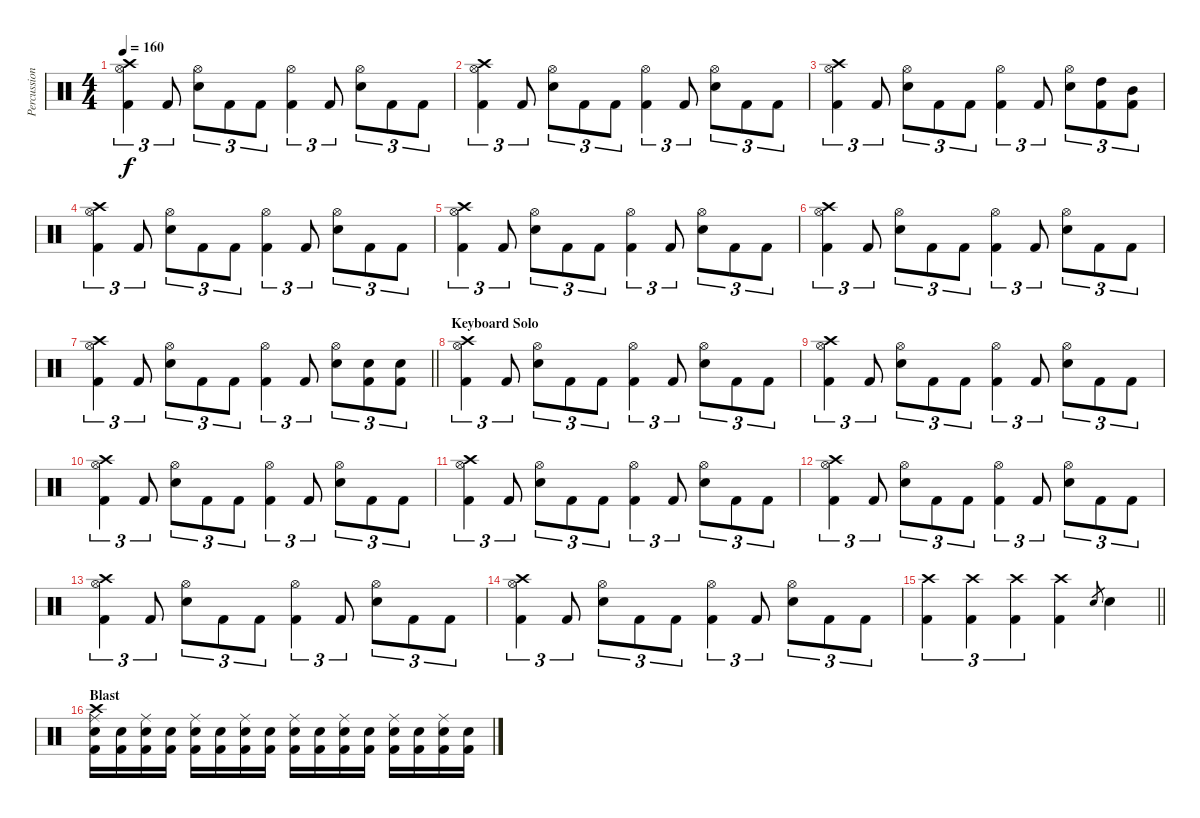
\track ("Percussion" "Percussion") {instrument percussion}
\staff {score}
\articulation defaults
\ts (4 4)
\tempo 160
\clef neutral
\ks c
("Crash high (hit)" "Hi-Hat (open)" "Kick (hit) 2").4{tu (3 2) dy f} "Kick (hit) 2".8{tu (3 2)} ("Hi-Hat (open)" "Snare (hit) 2").8{tu (3 2)} "Kick (hit) 2".8{tu (3 2)} "Kick (hit) 2".8{tu (3 2)} ("Hi-Hat (open)" "Kick (hit) 2").4{tu (3 2)} "Kick (hit) 2".8{tu (3 2)} ("Hi-Hat (open)" "Snare (hit) 2").8{tu (3 2)} "Kick (hit) 2".8{tu (3 2)} "Kick (hit) 2".8{tu (3 2)} |
("Crash high (hit)" "Hi-Hat (open)" "Kick (hit) 2").4{tu (3 2)} "Kick (hit) 2".8{tu (3 2)} ("Hi-Hat (open)" "Snare (hit) 2").8{tu (3 2)} "Kick (hit) 2".8{tu (3 2)} "Kick (hit) 2".8{tu (3 2)} ("Hi-Hat (open)" "Kick (hit) 2").4{tu (3 2)} "Kick (hit) 2".8{tu (3 2)} ("Hi-Hat (open)" "Snare (hit) 2").8{tu (3 2)} "Kick (hit) 2".8{tu (3 2)} "Kick (hit) 2".8{tu (3 2)} |
("Crash high (hit)" "Hi-Hat (open)" "Kick (hit) 2").4{tu (3 2)} "Kick (hit) 2".8{tu (3 2)} ("Hi-Hat (open)" "Snare (hit) 2").8{tu (3 2)} "Kick (hit) 2".8{tu (3 2)} "Kick (hit) 2".8{tu (3 2)} ("Hi-Hat (open)" "Kick (hit) 2").4{tu (3 2)} "Kick (hit) 2".8{tu (3 2)} ("Hi-Hat (open)" "Snare (hit) 2").8{tu (3 2)} ("High Tom (hit)" "Kick (hit) 2").8{tu (3 2)} ("Mid Tom (hit)" "Kick (hit) 2").8{tu (3 2)} |
("Crash high (hit)" "Hi-Hat (open)" "Kick (hit) 2").4{tu (3 2)} "Kick (hit) 2".8{tu (3 2)} ("Hi-Hat (open)" "Snare (hit) 2").8{tu (3 2)} "Kick (hit) 2".8{tu (3 2)} "Kick (hit) 2".8{tu (3 2)} ("Hi-Hat (open)" "Kick (hit) 2").4{tu (3 2)} "Kick (hit) 2".8{tu (3 2)} ("Hi-Hat (open)" "Snare (hit) 2").8{tu (3 2)} "Kick (hit) 2".8{tu (3 2)} "Kick (hit) 2".8{tu (3 2)} |
("Crash high (hit)" "Hi-Hat (open)" "Kick (hit) 2").4{tu (3 2)} "Kick (hit) 2".8{tu (3 2)} ("Hi-Hat (open)" "Snare (hit) 2").8{tu (3 2)} "Kick (hit) 2".8{tu (3 2)} "Kick (hit) 2".8{tu (3 2)} ("Hi-Hat (open)" "Kick (hit) 2").4{tu (3 2)} "Kick (hit) 2".8{tu (3 2)} ("Hi-Hat (open)" "Snare (hit) 2").8{tu (3 2)} "Kick (hit) 2".8{tu (3 2)} "Kick (hit) 2".8{tu (3 2)} |
("Crash high (hit)" "Hi-Hat (open)" "Kick (hit) 2").4{tu (3 2)} "Kick (hit) 2".8{tu (3 2)} ("Hi-Hat (open)" "Snare (hit) 2").8{tu (3 2)} "Kick (hit) 2".8{tu (3 2)} "Kick (hit) 2".8{tu (3 2)} ("Hi-Hat (open)" "Kick (hit) 2").4{tu (3 2)} "Kick (hit) 2".8{tu (3 2)} ("Hi-Hat (open)" "Snare (hit) 2").8{tu (3 2)} "Kick (hit) 2".8{tu (3 2)} "Kick (hit) 2".8{tu (3 2)} |
\barLineRight lightlight
("Crash high (hit)" "Hi-Hat (open)" "Kick (hit) 2").4{tu (3 2)} "Kick (hit) 2".8{tu (3 2)} ("Hi-Hat (open)" "Snare (hit) 2").8{tu (3 2)} "Kick (hit) 2".8{tu (3 2)} "Kick (hit) 2".8{tu (3 2)} ("Hi-Hat (open)" "Kick (hit) 2").4{tu (3 2)} "Kick (hit) 2".8{tu (3 2)} ("Hi-Hat (open)" "Snare (hit) 2").8{tu (3 2)} ("Snare (hit) 2" "Kick (hit) 2").8{tu (3 2)} ("Snare (hit) 2" "Kick (hit) 2").8{tu (3 2)} |
\section ("" "Keyboard Solo")
("Crash high (hit)" "Hi-Hat (open)" "Kick (hit) 2").4{tu (3 2)} "Kick (hit) 2".8{tu (3 2)} ("Hi-Hat (open)" "Snare (hit) 2").8{tu (3 2)} "Kick (hit) 2".8{tu (3 2)} "Kick (hit) 2".8{tu (3 2)} ("Hi-Hat (open)" "Kick (hit) 2").4{tu (3 2)} "Kick (hit) 2".8{tu (3 2)} ("Hi-Hat (open)" "Snare (hit) 2").8{tu (3 2)} "Kick (hit) 2".8{tu (3 2)} "Kick (hit) 2".8{tu (3 2)} |
("Crash high (hit)" "Hi-Hat (open)" "Kick (hit) 2").4{tu (3 2)} "Kick (hit) 2".8{tu (3 2)} ("Hi-Hat (open)" "Snare (hit) 2").8{tu (3 2)} "Kick (hit) 2".8{tu (3 2)} "Kick (hit) 2".8{tu (3 2)} ("Hi-Hat (open)" "Kick (hit) 2").4{tu (3 2)} "Kick (hit) 2".8{tu (3 2)} ("Hi-Hat (open)" "Snare (hit) 2").8{tu (3 2)} "Kick (hit) 2".8{tu (3 2)} "Kick (hit) 2".8{tu (3 2)} |
("Crash high (hit)" "Hi-Hat (open)" "Kick (hit) 2").4{tu (3 2)} "Kick (hit) 2".8{tu (3 2)} ("Hi-Hat (open)" "Snare (hit) 2").8{tu (3 2)} "Kick (hit) 2".8{tu (3 2)} "Kick (hit) 2".8{tu (3 2)} ("Hi-Hat (open)" "Kick (hit) 2").4{tu (3 2)} "Kick (hit) 2".8{tu (3 2)} ("Hi-Hat (open)" "Snare (hit) 2").8{tu (3 2)} "Kick (hit) 2".8{tu (3 2)} "Kick (hit) 2".8{tu (3 2)} |
("Crash high (hit)" "Hi-Hat (open)" "Kick (hit) 2").4{tu (3 2)} "Kick (hit) 2".8{tu (3 2)} ("Hi-Hat (open)" "Snare (hit) 2").8{tu (3 2)} "Kick (hit) 2".8{tu (3 2)} "Kick (hit) 2".8{tu (3 2)} ("Hi-Hat (open)" "Kick (hit) 2").4{tu (3 2)} "Kick (hit) 2".8{tu (3 2)} ("Hi-Hat (open)" "Snare (hit) 2").8{tu (3 2)} "Kick (hit) 2".8{tu (3 2)} "Kick (hit) 2".8{tu (3 2)} |
("Crash high (hit)" "Hi-Hat (open)" "Kick (hit) 2").4{tu (3 2)} "Kick (hit) 2".8{tu (3 2)} ("Hi-Hat (open)" "Snare (hit) 2").8{tu (3 2)} "Kick (hit) 2".8{tu (3 2)} "Kick (hit) 2".8{tu (3 2)} ("Hi-Hat (open)" "Kick (hit) 2").4{tu (3 2)} "Kick (hit) 2".8{tu (3 2)} ("Hi-Hat (open)" "Snare (hit) 2").8{tu (3 2)} "Kick (hit) 2".8{tu (3 2)} "Kick (hit) 2".8{tu (3 2)} |
("Crash high (hit)" "Hi-Hat (open)" "Kick (hit) 2").4{tu (3 2)} "Kick (hit) 2".8{tu (3 2)} ("Hi-Hat (open)" "Snare (hit) 2").8{tu (3 2)} "Kick (hit) 2".8{tu (3 2)} "Kick (hit) 2".8{tu (3 2)} ("Hi-Hat (open)" "Kick (hit) 2").4{tu (3 2)} "Kick (hit) 2".8{tu (3 2)} ("Hi-Hat (open)" "Snare (hit) 2").8{tu (3 2)} "Kick (hit) 2".8{tu (3 2)} "Kick (hit) 2".8{tu (3 2)} |
("Crash high (hit)" "Hi-Hat (open)" "Kick (hit) 2").4{tu (3 2)} "Kick (hit) 2".8{tu (3 2)} ("Hi-Hat (open)" "Snare (hit) 2").8{tu (3 2)} "Kick (hit) 2".8{tu (3 2)} "Kick (hit) 2".8{tu (3 2)} ("Hi-Hat (open)" "Kick (hit) 2").4{tu (3 2)} "Kick (hit) 2".8{tu (3 2)} ("Hi-Hat (open)" "Snare (hit) 2").8{tu (3 2)} "Kick (hit) 2".8{tu (3 2)} "Kick (hit) 2".8{tu (3 2)} |
\barLineRight lightlight
("Crash high (hit)" "Kick (hit) 2").4{tu (3 2)} ("Crash high (hit)" "Kick (hit) 2").4{tu (3 2)} ("Crash high (hit)" "Kick (hit) 2").4{tu (3 2)} ("Crash high (hit)" "Kick (hit) 2").4 "Snare (hit) 2".8{gr} "Snare (hit) 2".4 |
\section ("" "Blast")
("Crash high (hit)" "Ride (middle)" "Snare (hit) 2" "Kick (hit) 2").16 ("Snare (hit) 2" "Kick (hit) 2").16 ("Ride (middle)" "Snare (hit) 2" "Kick (hit) 2").16 ("Snare (hit) 2" "Kick (hit) 2").16 ("Ride (middle)" "Snare (hit) 2" "Kick (hit) 2").16 ("Snare (hit) 2" "Kick (hit) 2").16 ("Ride (middle)" "Snare (hit) 2" "Kick (hit) 2").16 ("Snare (hit) 2" "Kick (hit) 2").16 ("Ride (middle)" "Snare (hit) 2" "Kick (hit) 2").16 ("Snare (hit) 2" "Kick (hit) 2").16 ("Ride (middle)" "Snare (hit) 2" "Kick (hit) 2").16 ("Snare (hit) 2" "Kick (hit) 2").16 ("Ride (middle)" "Snare (hit) 2" "Kick (hit) 2").16 ("Snare (hit) 2" "Kick (hit) 2").16 ("Ride (middle)" "Snare (hit) 2" "Kick (hit) 2").16 ("Snare (hit) 2" "Kick (hit) 2").16
